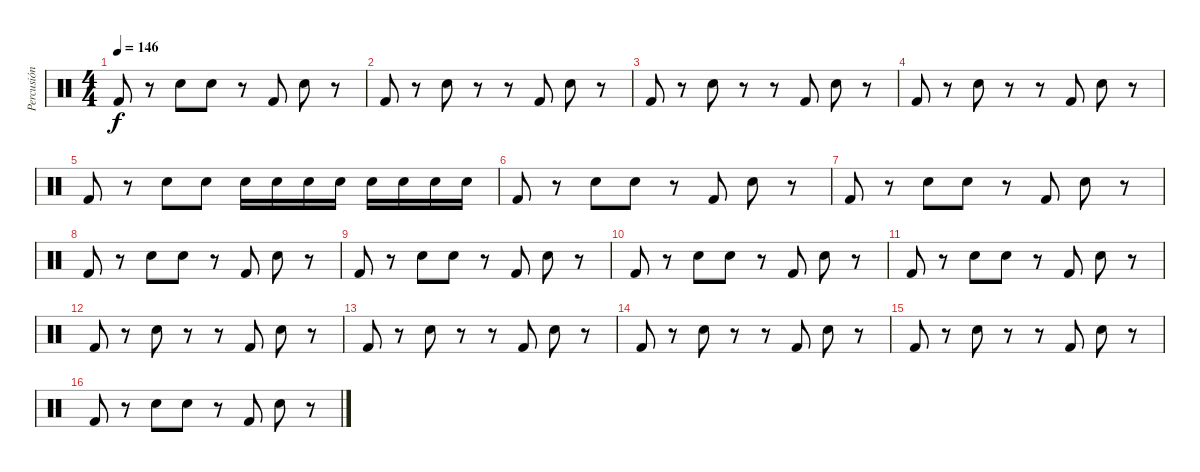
\track ("Percusión" "Percusión") {instrument percussion}
\staff {score}
\articulation defaults
\ts (4 4)
\tempo 146
\clef neutral
\ks c "Kick (hit) 2".8{dy f}
r.8 "Snare (hit) 2".8 "Snare (hit) 2".8 r.8 "Kick (hit) 2".8 "Snare (hit) 2".8 r.8 |
"Kick (hit) 2".8 r.8 "Snare (hit) 2".8 r.8 r.8 "Kick (hit) 2".8 "Snare (hit) 2".8 r.8 |
"Kick (hit) 2".8 r.8 "Snare (hit) 2".8 r.8 r.8 "Kick (hit) 2".8 "Snare (hit) 2".8 r.8 |
"Kick (hit) 2".8 r.8 "Snare (hit) 2".8 r.8 r.8 "Kick (hit) 2".8 "Snare (hit) 2".8 r.8 |
"Kick (hit) 2".8 r.8 "Snare (hit) 2".8 "Snare (hit) 2".8 "Snare (hit) 2".16 "Snare (hit) 2".16 "Snare (hit) 2".16 "Snare (hit) 2".16 "Snare (hit) 2".16 "Snare (hit) 2".16 "Snare (hit) 2".16 "Snare (hit) 2".16 |
"Kick (hit) 2".8 r.8 "Snare (hit) 2".8 "Snare (hit) 2".8 r.8 "Kick (hit) 2".8 "Snare (hit) 2".8 r.8 |
"Kick (hit) 2".8 r.8 "Snare (hit) 2".8 "Snare (hit) 2".8 r.8 "Kick (hit) 2".8 "Snare (hit) 2".8 r.8 |
"Kick (hit) 2".8 r.8 "Snare (hit) 2".8 "Snare (hit) 2".8 r.8 "Kick (hit) 2".8 "Snare (hit) 2".8 r.8 |
"Kick (hit) 2".8 r.8 "Snare (hit) 2".8 "Snare (hit) 2".8 r.8 "Kick (hit) 2".8 "Snare (hit) 2".8 r.8 |
"Kick (hit) 2".8 r.8 "Snare (hit) 2".8 "Snare (hit) 2".8 r.8 "Kick (hit) 2".8 "Snare (hit) 2".8 r.8 |
"Kick (hit) 2".8 r.8 "Snare (hit) 2".8 "Snare (hit) 2".8 r.8 "Kick (hit) 2".8 "Snare (hit) 2".8 r.8 |
"Kick (hit) 2".8 r.8 "Snare (hit) 2".8 r.8 r.8 "Kick (hit) 2".8 "Snare (hit) 2".8 r.8 |
"Kick (hit) 2".8 r.8 "Snare (hit) 2".8 r.8 r.8 "Kick (hit) 2".8 "Snare (hit) 2".8 r.8 |
"Kick (hit) 2".8 r.8 "Snare (hit) 2".8 r.8 r.8 "Kick (hit) 2".8 "Snare (hit) 2".8 r.8 |
"Kick (hit) 2".8 r.8 "Snare (hit) 2".8 r.8 r.8 "Kick (hit) 2".8 "Snare (hit) 2".8 r.8 |
"Kick (hit) 2".8 r.8 "Snare (hit) 2".8 "Snare (hit) 2".8 r.8 "Kick (hit) 2".8 "Snare (hit) 2".8 r.8
